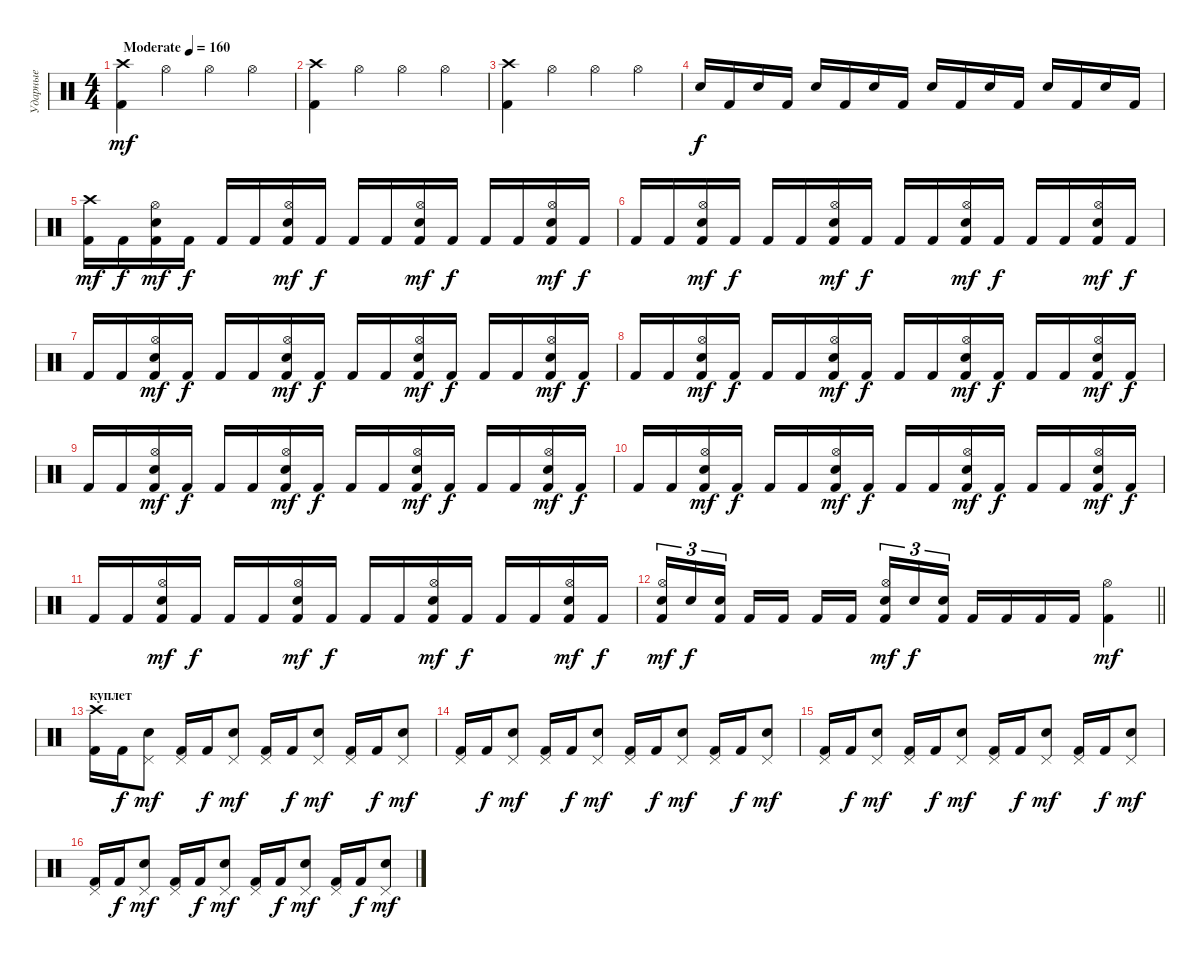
\track ("Ударные" "Ударные") {instrument percussion}
\staff {score}
\articulation defaults
\ts (4 4)
\tempo (160 "Moderate")
\clef neutral
\ks c
("Kick (hit) 2" "Crash high (hit)").4{dy mf} "Hi-Hat (open)".4 "Hi-Hat (open)".4 "Hi-Hat (open)".4 |
("Kick (hit) 2" "Crash high (hit)").4 "Hi-Hat (open)".4 "Hi-Hat (open)".4 "Hi-Hat (open)".4 |
("Kick (hit) 2" "Crash high (hit)").4 "Hi-Hat (open)".4 "Hi-Hat (open)".4 "Hi-Hat (open)".4 |
"Electric Snare (hit)".16{dy f} "Kick (hit) 2".16 "Electric Snare (hit)".16 "Kick (hit) 2".16 "Electric Snare (hit)".16 "Kick (hit) 2".16 "Electric Snare (hit)".16 "Kick (hit) 2".16 "Electric Snare (hit)".16 "Kick (hit) 2".16 "Electric Snare (hit)".16 "Kick (hit) 2".16 "Electric Snare (hit)".16 "Kick (hit) 2".16 "Electric Snare (hit)".16 "Kick (hit) 2".16 |
("Kick (hit) 2" "Crash high (hit)").16{dy mf} "Kick (hit) 2".16{dy f} ("Kick (hit) 2" "Electric Snare (hit)" "Hi-Hat (open)").16{dy mf} "Kick (hit) 2".16{dy f} "Kick (hit) 2".16 "Kick (hit) 2".16 ("Kick (hit) 2" "Electric Snare (hit)" "Hi-Hat (open)").16{dy mf} "Kick (hit) 2".16{dy f} "Kick (hit) 2".16 "Kick (hit) 2".16 ("Kick (hit) 2" "Electric Snare (hit)" "Hi-Hat (open)").16{dy mf} "Kick (hit) 2".16{dy f} "Kick (hit) 2".16 "Kick (hit) 2".16 ("Kick (hit) 2" "Electric Snare (hit)" "Hi-Hat (open)").16{dy mf} "Kick (hit) 2".16{dy f} |
"Kick (hit) 2".16 "Kick (hit) 2".16 ("Kick (hit) 2" "Electric Snare (hit)" "Hi-Hat (open)").16{dy mf} "Kick (hit) 2".16{dy f} "Kick (hit) 2".16 "Kick (hit) 2".16 ("Kick (hit) 2" "Electric Snare (hit)" "Hi-Hat (open)").16{dy mf} "Kick (hit) 2".16{dy f} "Kick (hit) 2".16 "Kick (hit) 2".16 ("Kick (hit) 2" "Electric Snare (hit)" "Hi-Hat (open)").16{dy mf} "Kick (hit) 2".16{dy f} "Kick (hit) 2".16 "Kick (hit) 2".16 ("Kick (hit) 2" "Electric Snare (hit)" "Hi-Hat (open)").16{dy mf} "Kick (hit) 2".16{dy f} |
"Kick (hit) 2".16 "Kick (hit) 2".16 ("Kick (hit) 2" "Electric Snare (hit)" "Hi-Hat (open)").16{dy mf} "Kick (hit) 2".16{dy f} "Kick (hit) 2".16 "Kick (hit) 2".16 ("Kick (hit) 2" "Electric Snare (hit)" "Hi-Hat (open)").16{dy mf} "Kick (hit) 2".16{dy f} "Kick (hit) 2".16 "Kick (hit) 2".16 ("Kick (hit) 2" "Electric Snare (hit)" "Hi-Hat (open)").16{dy mf} "Kick (hit) 2".16{dy f} "Kick (hit) 2".16 "Kick (hit) 2".16 ("Kick (hit) 2" "Electric Snare (hit)" "Hi-Hat (open)").16{dy mf} "Kick (hit) 2".16{dy f} |
"Kick (hit) 2".16 "Kick (hit) 2".16 ("Kick (hit) 2" "Electric Snare (hit)" "Hi-Hat (open)").16{dy mf} "Kick (hit) 2".16{dy f} "Kick (hit) 2".16 "Kick (hit) 2".16 ("Kick (hit) 2" "Electric Snare (hit)" "Hi-Hat (open)").16{dy mf} "Kick (hit) 2".16{dy f} "Kick (hit) 2".16 "Kick (hit) 2".16 ("Kick (hit) 2" "Electric Snare (hit)" "Hi-Hat (open)").16{dy mf} "Kick (hit) 2".16{dy f} "Kick (hit) 2".16 "Kick (hit) 2".16 ("Kick (hit) 2" "Electric Snare (hit)" "Hi-Hat (open)").16{dy mf} "Kick (hit) 2".16{dy f} |
"Kick (hit) 2".16 "Kick (hit) 2".16 ("Kick (hit) 2" "Electric Snare (hit)" "Hi-Hat (open)").16{dy mf} "Kick (hit) 2".16{dy f} "Kick (hit) 2".16 "Kick (hit) 2".16 ("Kick (hit) 2" "Electric Snare (hit)" "Hi-Hat (open)").16{dy mf} "Kick (hit) 2".16{dy f} "Kick (hit) 2".16 "Kick (hit) 2".16 ("Kick (hit) 2" "Electric Snare (hit)" "Hi-Hat (open)").16{dy mf} "Kick (hit) 2".16{dy f} "Kick (hit) 2".16 "Kick (hit) 2".16 ("Kick (hit) 2" "Electric Snare (hit)" "Hi-Hat (open)").16{dy mf} "Kick (hit) 2".16{dy f} |
"Kick (hit) 2".16 "Kick (hit) 2".16 ("Kick (hit) 2" "Electric Snare (hit)" "Hi-Hat (open)").16{dy mf} "Kick (hit) 2".16{dy f} "Kick (hit) 2".16 "Kick (hit) 2".16 ("Kick (hit) 2" "Electric Snare (hit)" "Hi-Hat (open)").16{dy mf} "Kick (hit) 2".16{dy f} "Kick (hit) 2".16 "Kick (hit) 2".16 ("Kick (hit) 2" "Electric Snare (hit)" "Hi-Hat (open)").16{dy mf} "Kick (hit) 2".16{dy f} "Kick (hit) 2".16 "Kick (hit) 2".16 ("Kick (hit) 2" "Electric Snare (hit)" "Hi-Hat (open)").16{dy mf} "Kick (hit) 2".16{dy f} |
"Kick (hit) 2".16 "Kick (hit) 2".16 ("Kick (hit) 2" "Electric Snare (hit)" "Hi-Hat (open)").16{dy mf} "Kick (hit) 2".16{dy f} "Kick (hit) 2".16 "Kick (hit) 2".16 ("Kick (hit) 2" "Electric Snare (hit)" "Hi-Hat (open)").16{dy mf} "Kick (hit) 2".16{dy f} "Kick (hit) 2".16 "Kick (hit) 2".16 ("Kick (hit) 2" "Electric Snare (hit)" "Hi-Hat (open)").16{dy mf} "Kick (hit) 2".16{dy f} "Kick (hit) 2".16 "Kick (hit) 2".16 ("Kick (hit) 2" "Electric Snare (hit)" "Hi-Hat (open)").16{dy mf} "Kick (hit) 2".16{dy f} |
\barLineRight lightlight
("Kick (hit) 2" "Electric Snare (hit)" "Hi-Hat (open)").16{tu (3 2) dy mf} "Electric Snare (hit)".16{tu (3 2) dy f} ("Kick (hit) 2" "Electric Snare (hit)").16{tu (3 2) beam splitsecondary} "Kick (hit) 2".16 "Kick (hit) 2".16 "Kick (hit) 2".16 "Kick (hit) 2".16{beam splitsecondary} ("Kick (hit) 2" "Electric Snare (hit)" "Hi-Hat (open)").16{tu (3 2) dy mf} "Electric Snare (hit)".16{tu (3 2) dy f} ("Kick (hit) 2" "Electric Snare (hit)").16{tu (3 2)} "Kick (hit) 2".16 "Kick (hit) 2".16 "Kick (hit) 2".16 "Kick (hit) 2".16 ("Kick (hit) 2" "Hi-Hat (open)").4{dy mf} |
\section ("" "куплет")
("Kick (hit) 2" "Crash high (hit)").16 "Kick (hit) 2".16{dy f} ("Electric Snare (hit)" "Pedal Hi-Hat (hit)").8{dy mf} ("Kick (hit) 2" "Pedal Hi-Hat (hit)").16 "Kick (hit) 2".16{dy f} ("Electric Snare (hit)" "Pedal Hi-Hat (hit)").8{dy mf} ("Kick (hit) 2" "Pedal Hi-Hat (hit)").16 "Kick (hit) 2".16{dy f} ("Electric Snare (hit)" "Pedal Hi-Hat (hit)").8{dy mf} ("Kick (hit) 2" "Pedal Hi-Hat (hit)").16 "Kick (hit) 2".16{dy f} ("Electric Snare (hit)" "Pedal Hi-Hat (hit)").8{dy mf} |
("Kick (hit) 2" "Pedal Hi-Hat (hit)").16 "Kick (hit) 2".16{dy f} ("Electric Snare (hit)" "Pedal Hi-Hat (hit)").8{dy mf} ("Kick (hit) 2" "Pedal Hi-Hat (hit)").16 "Kick (hit) 2".16{dy f} ("Electric Snare (hit)" "Pedal Hi-Hat (hit)").8{dy mf} ("Kick (hit) 2" "Pedal Hi-Hat (hit)").16 "Kick (hit) 2".16{dy f} ("Electric Snare (hit)" "Pedal Hi-Hat (hit)").8{dy mf} ("Kick (hit) 2" "Pedal Hi-Hat (hit)").16 "Kick (hit) 2".16{dy f} ("Electric Snare (hit)" "Pedal Hi-Hat (hit)").8{dy mf} |
("Kick (hit) 2" "Pedal Hi-Hat (hit)").16 "Kick (hit) 2".16{dy f} ("Electric Snare (hit)" "Pedal Hi-Hat (hit)").8{dy mf} ("Kick (hit) 2" "Pedal Hi-Hat (hit)").16 "Kick (hit) 2".16{dy f} ("Electric Snare (hit)" "Pedal Hi-Hat (hit)").8{dy mf} ("Kick (hit) 2" "Pedal Hi-Hat (hit)").16 "Kick (hit) 2".16{dy f} ("Electric Snare (hit)" "Pedal Hi-Hat (hit)").8{dy mf} ("Kick (hit) 2" "Pedal Hi-Hat (hit)").16 "Kick (hit) 2".16{dy f} ("Electric Snare (hit)" "Pedal Hi-Hat (hit)").8{dy mf} |
("Kick (hit) 2" "Pedal Hi-Hat (hit)").16 "Kick (hit) 2".16{dy f} ("Electric Snare (hit)" "Pedal Hi-Hat (hit)").8{dy mf} ("Kick (hit) 2" "Pedal Hi-Hat (hit)").16 "Kick (hit) 2".16{dy f} ("Electric Snare (hit)" "Pedal Hi-Hat (hit)").8{dy mf} ("Kick (hit) 2" "Pedal Hi-Hat (hit)").16 "Kick (hit) 2".16{dy f} ("Electric Snare (hit)" "Pedal Hi-Hat (hit)").8{dy mf} ("Kick (hit) 2" "Pedal Hi-Hat (hit)").16 "Kick (hit) 2".16{dy f} ("Electric Snare (hit)" "Pedal Hi-Hat (hit)").8{dy mf}
